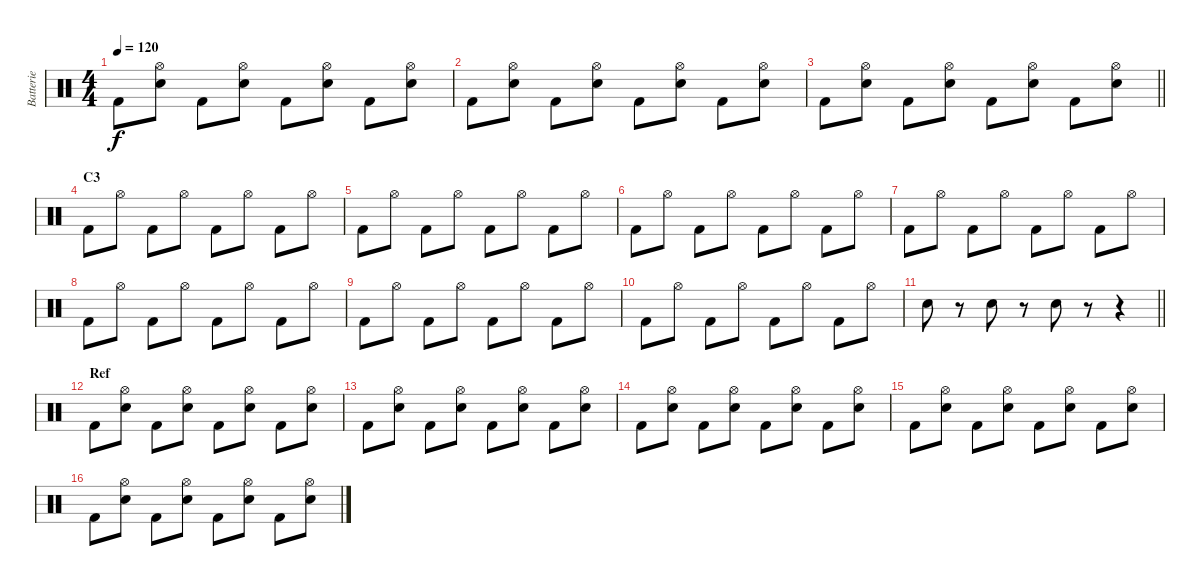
\track ("Batterie" "Batterie") {instrument percussion}
\staff {score}
\articulation defaults
\ts (4 4)
\tempo 120
\clef neutral
\ks c "Kick (hit) 2".8{dy f}
("Hi-Hat (open)" "Electric Snare (hit)").8 "Kick (hit) 2".8 ("Hi-Hat (open)" "Electric Snare (hit)").8 "Kick (hit) 2".8 ("Hi-Hat (open)" "Electric Snare (hit)").8 "Kick (hit) 2".8 ("Hi-Hat (open)" "Electric Snare (hit)").8 |
"Kick (hit) 2".8 ("Hi-Hat (open)" "Electric Snare (hit)").8 "Kick (hit) 2".8 ("Hi-Hat (open)" "Electric Snare (hit)").8 "Kick (hit) 2".8 ("Hi-Hat (open)" "Electric Snare (hit)").8 "Kick (hit) 2".8 ("Hi-Hat (open)" "Electric Snare (hit)").8 |
\barLineRight lightlight "Kick (hit) 2".8
("Hi-Hat (open)" "Electric Snare (hit)").8 "Kick (hit) 2".8 ("Hi-Hat (open)" "Electric Snare (hit)").8 "Kick (hit) 2".8 ("Hi-Hat (open)" "Electric Snare (hit)").8 "Kick (hit) 2".8 ("Hi-Hat (open)" "Electric Snare (hit)").8 |
\section ("" "C3")
"Kick (hit) 2".8 "Hi-Hat (open)".8 "Kick (hit) 2".8 "Hi-Hat (open)".8 "Kick (hit) 2".8 "Hi-Hat (open)".8 "Kick (hit) 2".8 "Hi-Hat (open)".8 |
"Kick (hit) 2".8 "Hi-Hat (open)".8 "Kick (hit) 2".8 "Hi-Hat (open)".8 "Kick (hit) 2".8 "Hi-Hat (open)".8 "Kick (hit) 2".8 "Hi-Hat (open)".8 |
"Kick (hit) 2".8 "Hi-Hat (open)".8 "Kick (hit) 2".8 "Hi-Hat (open)".8 "Kick (hit) 2".8 "Hi-Hat (open)".8 "Kick (hit) 2".8 "Hi-Hat (open)".8 |
"Kick (hit) 2".8 "Hi-Hat (open)".8 "Kick (hit) 2".8 "Hi-Hat (open)".8 "Kick (hit) 2".8 "Hi-Hat (open)".8 "Kick (hit) 2".8 "Hi-Hat (open)".8 |
"Kick (hit) 2".8 "Hi-Hat (open)".8 "Kick (hit) 2".8 "Hi-Hat (open)".8 "Kick (hit) 2".8 "Hi-Hat (open)".8 "Kick (hit) 2".8 "Hi-Hat (open)".8 |
"Kick (hit) 2".8 "Hi-Hat (open)".8 "Kick (hit) 2".8 "Hi-Hat (open)".8 "Kick (hit) 2".8 "Hi-Hat (open)".8 "Kick (hit) 2".8 "Hi-Hat (open)".8 |
"Kick (hit) 2".8 "Hi-Hat (open)".8 "Kick (hit) 2".8 "Hi-Hat (open)".8 "Kick (hit) 2".8 "Hi-Hat (open)".8 "Kick (hit) 2".8 "Hi-Hat (open)".8 |
\barLineRight lightlight "Electric Snare (hit)".8
r.8 "Electric Snare (hit)".8 r.8 "Electric Snare (hit)".8 r.8 r.4 |
\section ("" "Ref")
"Kick (hit) 2".8 ("Hi-Hat (open)" "Electric Snare (hit)").8 "Kick (hit) 2".8 ("Hi-Hat (open)" "Electric Snare (hit)").8 "Kick (hit) 2".8 ("Hi-Hat (open)" "Electric Snare (hit)").8 "Kick (hit) 2".8 ("Hi-Hat (open)" "Electric Snare (hit)").8 |
"Kick (hit) 2".8 ("Hi-Hat (open)" "Electric Snare (hit)").8 "Kick (hit) 2".8 ("Hi-Hat (open)" "Electric Snare (hit)").8 "Kick (hit) 2".8 ("Hi-Hat (open)" "Electric Snare (hit)").8 "Kick (hit) 2".8 ("Hi-Hat (open)" "Electric Snare (hit)").8 |
"Kick (hit) 2".8 ("Hi-Hat (open)" "Electric Snare (hit)").8 "Kick (hit) 2".8 ("Hi-Hat (open)" "Electric Snare (hit)").8 "Kick (hit) 2".8 ("Hi-Hat (open)" "Electric Snare (hit)").8 "Kick (hit) 2".8 ("Hi-Hat (open)" "Electric Snare (hit)").8 |
"Kick (hit) 2".8 ("Hi-Hat (open)" "Electric Snare (hit)").8 "Kick (hit) 2".8 ("Hi-Hat (open)" "Electric Snare (hit)").8 "Kick (hit) 2".8 ("Hi-Hat (open)" "Electric Snare (hit)").8 "Kick (hit) 2".8 ("Hi-Hat (open)" "Electric Snare (hit)").8 |
"Kick (hit) 2".8 ("Hi-Hat (open)" "Electric Snare (hit)").8 "Kick (hit) 2".8 ("Hi-Hat (open)" "Electric Snare (hit)").8 "Kick (hit) 2".8 ("Hi-Hat (open)" "Electric Snare (hit)").8 "Kick (hit) 2".8 ("Hi-Hat (open)" "Electric Snare (hit)").8
